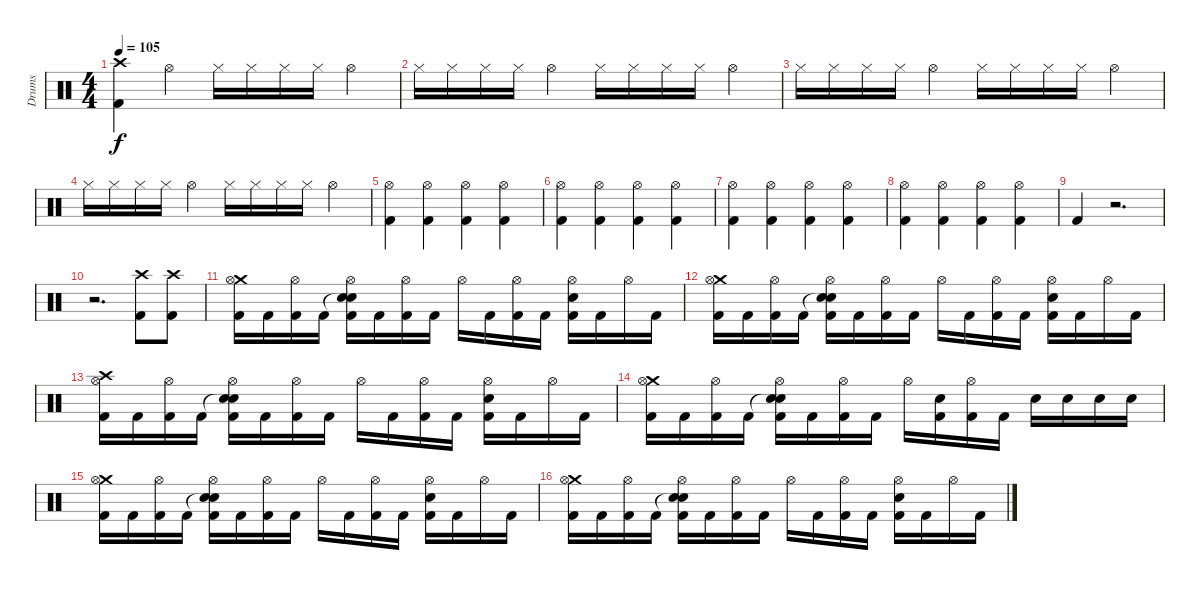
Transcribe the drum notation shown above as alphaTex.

\track ("Drums" "Drums") {instrument percussion}
\staff {score}
\articulation defaults
\ts (4 4)
\tempo 105
\clef neutral
\ks c
("Crash high (hit)" "Kick (hit) 2").4{dy f} "Hi-Hat (open)".4 "Hi-Hat (closed)".16 "Hi-Hat (closed)".16 "Hi-Hat (closed)".16 "Hi-Hat (closed)".16 "Hi-Hat (open)".4 |
"Hi-Hat (closed)".16 "Hi-Hat (closed)".16 "Hi-Hat (closed)".16 "Hi-Hat (closed)".16 "Hi-Hat (open)".4 "Hi-Hat (closed)".16 "Hi-Hat (closed)".16 "Hi-Hat (closed)".16 "Hi-Hat (closed)".16 "Hi-Hat (open)".4 |
"Hi-Hat (closed)".16 "Hi-Hat (closed)".16 "Hi-Hat (closed)".16 "Hi-Hat (closed)".16 "Hi-Hat (open)".4 "Hi-Hat (closed)".16 "Hi-Hat (closed)".16 "Hi-Hat (closed)".16 "Hi-Hat (closed)".16 "Hi-Hat (open)".4 |
"Hi-Hat (closed)".16 "Hi-Hat (closed)".16 "Hi-Hat (closed)".16 "Hi-Hat (closed)".16 "Hi-Hat (open)".4 "Hi-Hat (closed)".16 "Hi-Hat (closed)".16 "Hi-Hat (closed)".16 "Hi-Hat (closed)".16 "Hi-Hat (open)".4 |
("Hi-Hat (open)" "Kick (hit) 2").4 ("Hi-Hat (open)" "Kick (hit) 2").4 ("Hi-Hat (open)" "Kick (hit) 2").4 ("Hi-Hat (open)" "Kick (hit) 2").4 |
("Hi-Hat (open)" "Kick (hit) 2").4 ("Hi-Hat (open)" "Kick (hit) 2").4 ("Hi-Hat (open)" "Kick (hit) 2").4 ("Hi-Hat (open)" "Kick (hit) 2").4 |
("Hi-Hat (open)" "Kick (hit) 2").4 ("Hi-Hat (open)" "Kick (hit) 2").4 ("Hi-Hat (open)" "Kick (hit) 2").4 ("Hi-Hat (open)" "Kick (hit) 2").4 |
("Hi-Hat (open)" "Kick (hit) 2").4 ("Hi-Hat (open)" "Kick (hit) 2").4 ("Hi-Hat (open)" "Kick (hit) 2").4 ("Hi-Hat (open)" "Kick (hit) 2").4 |
"Kick (hit) 2".4 r.2{d} |
r.2{d} ("Crash high (hit)" "Kick (hit) 2").8 ("Crash high (hit)" "Kick (hit) 2").8 |
("Crash medium (hit)" "Hi-Hat (open)" "Kick (hit) 2").16 "Kick (hit) 2".16 ("Hi-Hat (open)" "Kick (hit) 2").16 "Kick (hit) 2".16 ("Snare (hit)"{t} "Hi-Hat (open)" "Electric Snare (hit)" "Kick (hit) 2").16 "Kick (hit) 2".16 ("Hi-Hat (open)" "Kick (hit) 2").16 "Kick (hit) 2".16 "Hi-Hat (open)".16 "Kick (hit) 2".16 ("Hi-Hat (open)" "Kick (hit) 2").16 "Kick (hit) 2".16 ("Hi-Hat (open)" "Electric Snare (hit)" "Kick (hit) 2").16 "Kick (hit) 2".16 "Hi-Hat (open)".16 "Kick (hit) 2".16 |
("Crash medium (hit)" "Hi-Hat (open)" "Kick (hit) 2").16 "Kick (hit) 2".16 ("Hi-Hat (open)" "Kick (hit) 2").16 "Kick (hit) 2".16 ("Snare (hit)"{t} "Hi-Hat (open)" "Electric Snare (hit)" "Kick (hit) 2").16 "Kick (hit) 2".16 ("Hi-Hat (open)" "Kick (hit) 2").16 "Kick (hit) 2".16 "Hi-Hat (open)".16 "Kick (hit) 2".16 ("Hi-Hat (open)" "Kick (hit) 2").16 "Kick (hit) 2".16 ("Hi-Hat (open)" "Electric Snare (hit)" "Kick (hit) 2").16 "Kick (hit) 2".16 "Hi-Hat (open)".16 "Kick (hit) 2".16 |
("Crash high (hit)" "Hi-Hat (open)" "Kick (hit) 2").16 "Kick (hit) 2".16 ("Hi-Hat (open)" "Kick (hit) 2").16 "Kick (hit) 2".16 ("Snare (hit)"{t} "Hi-Hat (open)" "Electric Snare (hit)" "Kick (hit) 2").16 "Kick (hit) 2".16 ("Hi-Hat (open)" "Kick (hit) 2").16 "Kick (hit) 2".16 "Hi-Hat (open)".16 "Kick (hit) 2".16 ("Hi-Hat (open)" "Kick (hit) 2").16 "Kick (hit) 2".16 ("Hi-Hat (open)" "Electric Snare (hit)" "Kick (hit) 2").16 "Kick (hit) 2".16 "Hi-Hat (open)".16 "Kick (hit) 2".16 |
("Crash medium (hit)" "Hi-Hat (open)" "Kick (hit) 2").16 "Kick (hit) 2".16 ("Hi-Hat (open)" "Kick (hit) 2").16 "Kick (hit) 2".16 ("Snare (hit)"{t} "Hi-Hat (open)" "Electric Snare (hit)" "Kick (hit) 2").16 "Kick (hit) 2".16 ("Hi-Hat (open)" "Kick (hit) 2").16 "Kick (hit) 2".16 "Hi-Hat (open)".16 ("Electric Snare (hit)" "Kick (hit) 2").16 ("Hi-Hat (open)" "Kick (hit) 2").16 "Kick (hit) 2".16 "Electric Snare (hit)".16 "Electric Snare (hit)".16 "Electric Snare (hit)".16 "Electric Snare (hit)".16 |
("Crash medium (hit)" "Hi-Hat (open)" "Kick (hit) 2").16 "Kick (hit) 2".16 ("Hi-Hat (open)" "Kick (hit) 2").16 "Kick (hit) 2".16 ("Snare (hit)"{t} "Hi-Hat (open)" "Electric Snare (hit)" "Kick (hit) 2").16 "Kick (hit) 2".16 ("Hi-Hat (open)" "Kick (hit) 2").16 "Kick (hit) 2".16 "Hi-Hat (open)".16 "Kick (hit) 2".16 ("Hi-Hat (open)" "Kick (hit) 2").16 "Kick (hit) 2".16 ("Hi-Hat (open)" "Electric Snare (hit)" "Kick (hit) 2").16 "Kick (hit) 2".16 "Hi-Hat (open)".16 "Kick (hit) 2".16 |
("Crash medium (hit)" "Hi-Hat (open)" "Kick (hit) 2").16 "Kick (hit) 2".16 ("Hi-Hat (open)" "Kick (hit) 2").16 "Kick (hit) 2".16 ("Snare (hit)"{t} "Hi-Hat (open)" "Electric Snare (hit)" "Kick (hit) 2").16 "Kick (hit) 2".16 ("Hi-Hat (open)" "Kick (hit) 2").16 "Kick (hit) 2".16 "Hi-Hat (open)".16 "Kick (hit) 2".16 ("Hi-Hat (open)" "Kick (hit) 2").16 "Kick (hit) 2".16 ("Hi-Hat (open)" "Electric Snare (hit)" "Kick (hit) 2").16 "Kick (hit) 2".16 "Hi-Hat (open)".16 "Kick (hit) 2".16
